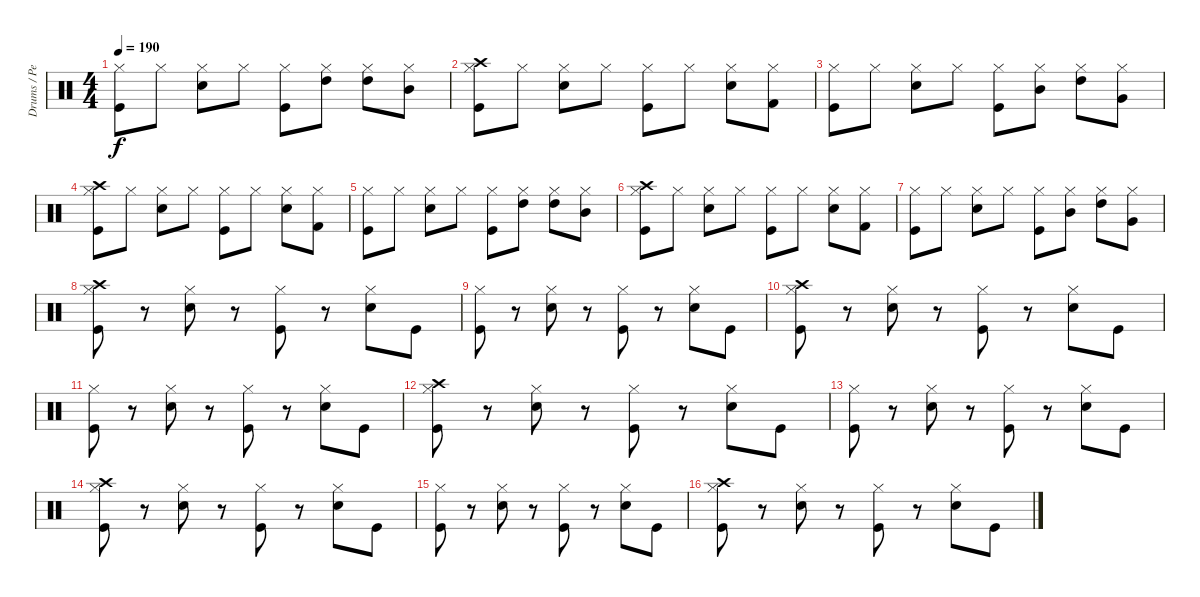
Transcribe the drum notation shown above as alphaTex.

\track ("Drums / Percussion" "Drums / Pe") {instrument percussion}
\staff {score}
\articulation defaults
\ts (4 4)
\tempo 190
\clef neutral
\ks c
("Hi-Hat (closed)" "Kick (hit)").8{dy f} "Hi-Hat (closed)".8 ("Hi-Hat (closed)" "Electric Snare (hit)").8 "Hi-Hat (closed)".8 ("Hi-Hat (closed)" "Kick (hit)").8 ("Hi-Hat (closed)" "High Tom (hit)").8 ("Hi-Hat (closed)" "High Tom (hit)").8 ("Hi-Hat (closed)" "Mid Tom (hit)").8 |
("Hi-Hat (closed)" "Crash high (hit)" "Kick (hit)").8 "Hi-Hat (closed)".8 ("Hi-Hat (closed)" "Electric Snare (hit)").8 "Hi-Hat (closed)".8 ("Hi-Hat (closed)" "Kick (hit)").8 "Hi-Hat (closed)".8 ("Hi-Hat (closed)" "Electric Snare (hit)").8 ("Hi-Hat (closed)" "Kick (hit) 2").8 |
("Hi-Hat (closed)" "Kick (hit)").8 "Hi-Hat (closed)".8 ("Hi-Hat (closed)" "Electric Snare (hit)").8 "Hi-Hat (closed)".8 ("Hi-Hat (closed)" "Kick (hit)").8 ("Hi-Hat (closed)" "Mid Tom (hit)").8 ("Hi-Hat (closed)" "High Tom (hit)").8 ("Hi-Hat (closed)" "Very Low Tom (hit)").8 |
("Hi-Hat (closed)" "Crash high (hit)" "Kick (hit)").8 "Hi-Hat (closed)".8 ("Hi-Hat (closed)" "Electric Snare (hit)").8 "Hi-Hat (closed)".8 ("Hi-Hat (closed)" "Kick (hit)").8 "Hi-Hat (closed)".8 ("Hi-Hat (closed)" "Electric Snare (hit)").8 ("Hi-Hat (closed)" "Kick (hit) 2").8 |
("Hi-Hat (closed)" "Kick (hit)").8 "Hi-Hat (closed)".8 ("Hi-Hat (closed)" "Electric Snare (hit)").8 "Hi-Hat (closed)".8 ("Hi-Hat (closed)" "Kick (hit)").8 ("Hi-Hat (closed)" "High Tom (hit)").8 ("Hi-Hat (closed)" "High Tom (hit)").8 ("Hi-Hat (closed)" "Mid Tom (hit)").8 |
("Hi-Hat (closed)" "Crash high (hit)" "Kick (hit)").8 "Hi-Hat (closed)".8 ("Hi-Hat (closed)" "Electric Snare (hit)").8 "Hi-Hat (closed)".8 ("Hi-Hat (closed)" "Kick (hit)").8 "Hi-Hat (closed)".8 ("Hi-Hat (closed)" "Electric Snare (hit)").8 ("Hi-Hat (closed)" "Kick (hit) 2").8 |
("Hi-Hat (closed)" "Kick (hit)").8 "Hi-Hat (closed)".8 ("Hi-Hat (closed)" "Electric Snare (hit)").8 "Hi-Hat (closed)".8 ("Hi-Hat (closed)" "Kick (hit)").8 ("Hi-Hat (closed)" "Mid Tom (hit)").8 ("Hi-Hat (closed)" "High Tom (hit)").8 ("Hi-Hat (closed)" "Very Low Tom (hit)").8 |
("Hi-Hat (closed)" "Crash high (hit)" "Kick (hit)").8 r.8 ("Hi-Hat (closed)" "Electric Snare (hit)").8 r.8 ("Hi-Hat (closed)" "Kick (hit)").8 r.8 ("Hi-Hat (closed)" "Electric Snare (hit)").8 "Kick (hit)".8 |
("Hi-Hat (closed)" "Kick (hit)").8 r.8 ("Hi-Hat (closed)" "Electric Snare (hit)").8 r.8 ("Hi-Hat (closed)" "Kick (hit)").8 r.8 ("Hi-Hat (closed)" "Electric Snare (hit)").8 "Kick (hit)".8 |
("Hi-Hat (closed)" "Crash high (hit)" "Kick (hit)").8 r.8 ("Hi-Hat (closed)" "Electric Snare (hit)").8 r.8 ("Hi-Hat (closed)" "Kick (hit)").8 r.8 ("Hi-Hat (closed)" "Electric Snare (hit)").8 "Kick (hit)".8 |
("Hi-Hat (closed)" "Kick (hit)").8 r.8 ("Hi-Hat (closed)" "Electric Snare (hit)").8 r.8 ("Hi-Hat (closed)" "Kick (hit)").8 r.8 ("Hi-Hat (closed)" "Electric Snare (hit)").8 "Kick (hit)".8 |
("Hi-Hat (closed)" "Crash high (hit)" "Kick (hit)").8 r.8 ("Hi-Hat (closed)" "Electric Snare (hit)").8 r.8 ("Hi-Hat (closed)" "Kick (hit)").8 r.8 ("Hi-Hat (closed)" "Electric Snare (hit)").8 "Kick (hit)".8 |
("Hi-Hat (closed)" "Kick (hit)").8 r.8 ("Hi-Hat (closed)" "Electric Snare (hit)").8 r.8 ("Hi-Hat (closed)" "Kick (hit)").8 r.8 ("Hi-Hat (closed)" "Electric Snare (hit)").8 "Kick (hit)".8 |
("Hi-Hat (closed)" "Crash high (hit)" "Kick (hit)").8 r.8 ("Hi-Hat (closed)" "Electric Snare (hit)").8 r.8 ("Hi-Hat (closed)" "Kick (hit)").8 r.8 ("Hi-Hat (closed)" "Electric Snare (hit)").8 "Kick (hit)".8 |
("Hi-Hat (closed)" "Kick (hit)").8 r.8 ("Hi-Hat (closed)" "Electric Snare (hit)").8 r.8 ("Hi-Hat (closed)" "Kick (hit)").8 r.8 ("Hi-Hat (closed)" "Electric Snare (hit)").8 "Kick (hit)".8 |
("Hi-Hat (closed)" "Crash high (hit)" "Kick (hit)").8 r.8 ("Hi-Hat (closed)" "Electric Snare (hit)").8 r.8 ("Hi-Hat (closed)" "Kick (hit)").8 r.8 ("Hi-Hat (closed)" "Electric Snare (hit)").8 "Kick (hit)".8
